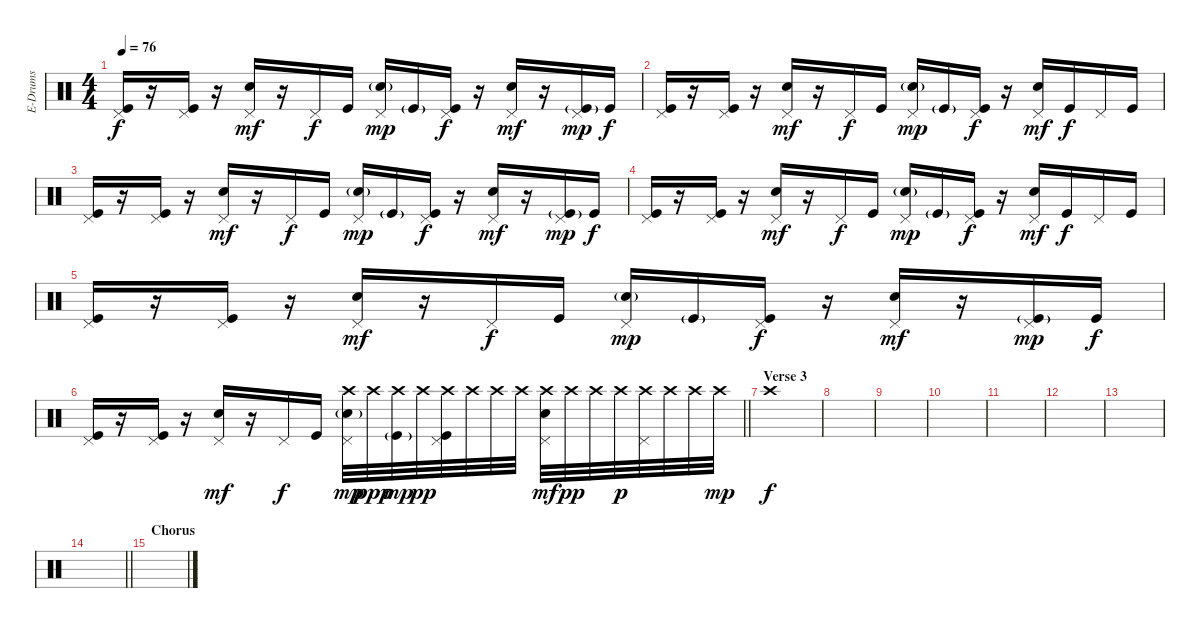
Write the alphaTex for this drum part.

\track ("E-Drums" "E-Drums") {instrument percussion}
\staff {score}
\articulation defaults
\ts (4 4)
\tempo 76
\clef neutral
\ks c
("Pedal Hi-Hat (hit)" "Kick (hit)").16{dy f} r.16 ("Pedal Hi-Hat (hit)" "Kick (hit)").16 r.16 ("Pedal Hi-Hat (hit)" "Electric Snare (hit)").16{dy mf} r.16 "Pedal Hi-Hat (hit)".16{dy f} "Kick (hit)".16 ("Pedal Hi-Hat (hit)" "Electric Snare (hit)"{g}).16{dy mp} "Kick (hit)"{g}.16 ("Pedal Hi-Hat (hit)" "Kick (hit)").16{dy f} r.16 ("Pedal Hi-Hat (hit)" "Electric Snare (hit)").16{dy mf} r.16 ("Pedal Hi-Hat (hit)" "Kick (hit)"{g}).16{dy mp} "Kick (hit)".16{dy f} |
("Pedal Hi-Hat (hit)" "Kick (hit)").16 r.16 ("Pedal Hi-Hat (hit)" "Kick (hit)").16 r.16 ("Pedal Hi-Hat (hit)" "Electric Snare (hit)").16{dy mf} r.16 "Pedal Hi-Hat (hit)".16{dy f} "Kick (hit)".16 ("Pedal Hi-Hat (hit)" "Electric Snare (hit)"{g}).16{dy mp} "Kick (hit)"{g}.16 ("Pedal Hi-Hat (hit)" "Kick (hit)").16{dy f} r.16 ("Pedal Hi-Hat (hit)" "Electric Snare (hit)").16{dy mf} "Kick (hit)".16{dy f} "Pedal Hi-Hat (hit)".16 "Kick (hit)".16 |
("Pedal Hi-Hat (hit)" "Kick (hit)").16 r.16 ("Pedal Hi-Hat (hit)" "Kick (hit)").16 r.16 ("Pedal Hi-Hat (hit)" "Electric Snare (hit)").16{dy mf} r.16 "Pedal Hi-Hat (hit)".16{dy f} "Kick (hit)".16 ("Pedal Hi-Hat (hit)" "Electric Snare (hit)"{g}).16{dy mp} "Kick (hit)"{g}.16 ("Pedal Hi-Hat (hit)" "Kick (hit)").16{dy f} r.16 ("Pedal Hi-Hat (hit)" "Electric Snare (hit)").16{dy mf} r.16 ("Pedal Hi-Hat (hit)" "Kick (hit)"{g}).16{dy mp} "Kick (hit)".16{dy f} |
("Pedal Hi-Hat (hit)" "Kick (hit)").16 r.16 ("Pedal Hi-Hat (hit)" "Kick (hit)").16 r.16 ("Pedal Hi-Hat (hit)" "Electric Snare (hit)").16{dy mf} r.16 "Pedal Hi-Hat (hit)".16{dy f} "Kick (hit)".16 ("Pedal Hi-Hat (hit)" "Electric Snare (hit)"{g}).16{dy mp} "Kick (hit)"{g}.16 ("Pedal Hi-Hat (hit)" "Kick (hit)").16{dy f} r.16 ("Pedal Hi-Hat (hit)" "Electric Snare (hit)").16{dy mf} "Kick (hit)".16{dy f} "Pedal Hi-Hat (hit)".16 "Kick (hit)".16 |
("Pedal Hi-Hat (hit)" "Kick (hit)").16 r.16 ("Pedal Hi-Hat (hit)" "Kick (hit)").16 r.16 ("Pedal Hi-Hat (hit)" "Electric Snare (hit)").16{dy mf} r.16 "Pedal Hi-Hat (hit)".16{dy f} "Kick (hit)".16 ("Pedal Hi-Hat (hit)" "Electric Snare (hit)"{g}).16{dy mp} "Kick (hit)"{g}.16 ("Pedal Hi-Hat (hit)" "Kick (hit)").16{dy f} r.16 ("Pedal Hi-Hat (hit)" "Electric Snare (hit)").16{dy mf} r.16 ("Pedal Hi-Hat (hit)" "Kick (hit)"{g}).16{dy mp} "Kick (hit)".16{dy f} |
\barLineRight lightlight
("Pedal Hi-Hat (hit)" "Kick (hit)").16 r.16 ("Pedal Hi-Hat (hit)" "Kick (hit)").16 r.16 ("Pedal Hi-Hat (hit)" "Electric Snare (hit)").16{dy mf} r.16 "Pedal Hi-Hat (hit)".16{dy f} "Kick (hit)".16 ("Crash high (hit)" "Pedal Hi-Hat (hit)" "Electric Snare (hit)"{g}).32{dy mp} "Crash high (hit)".32{dy ppp} ("Crash high (hit)" "Kick (hit)"{g}).32{dy mp} "Crash high (hit)".32{dy pp} ("Crash high (hit)" "Pedal Hi-Hat (hit)" "Kick (hit)").32 "Crash high (hit)".32 "Crash high (hit)".32 "Crash high (hit)".32 ("Crash high (hit)" "Pedal Hi-Hat (hit)" "Electric Snare (hit)").32{dy mf} "Crash high (hit)".32{dy pp} "Crash high (hit)".32 "Crash high (hit)".32{dy p} ("Crash high (hit)" "Pedal Hi-Hat (hit)").32 "Crash high (hit)".32 "Crash high (hit)".32 "Crash high (hit)".32{dy mp} |
\section ("" "Verse 3")
"Crash high (hit)".1{dy f} |
|
|
|
|
|
|
\barLineRight lightlight
|
\section ("" "Chorus")
